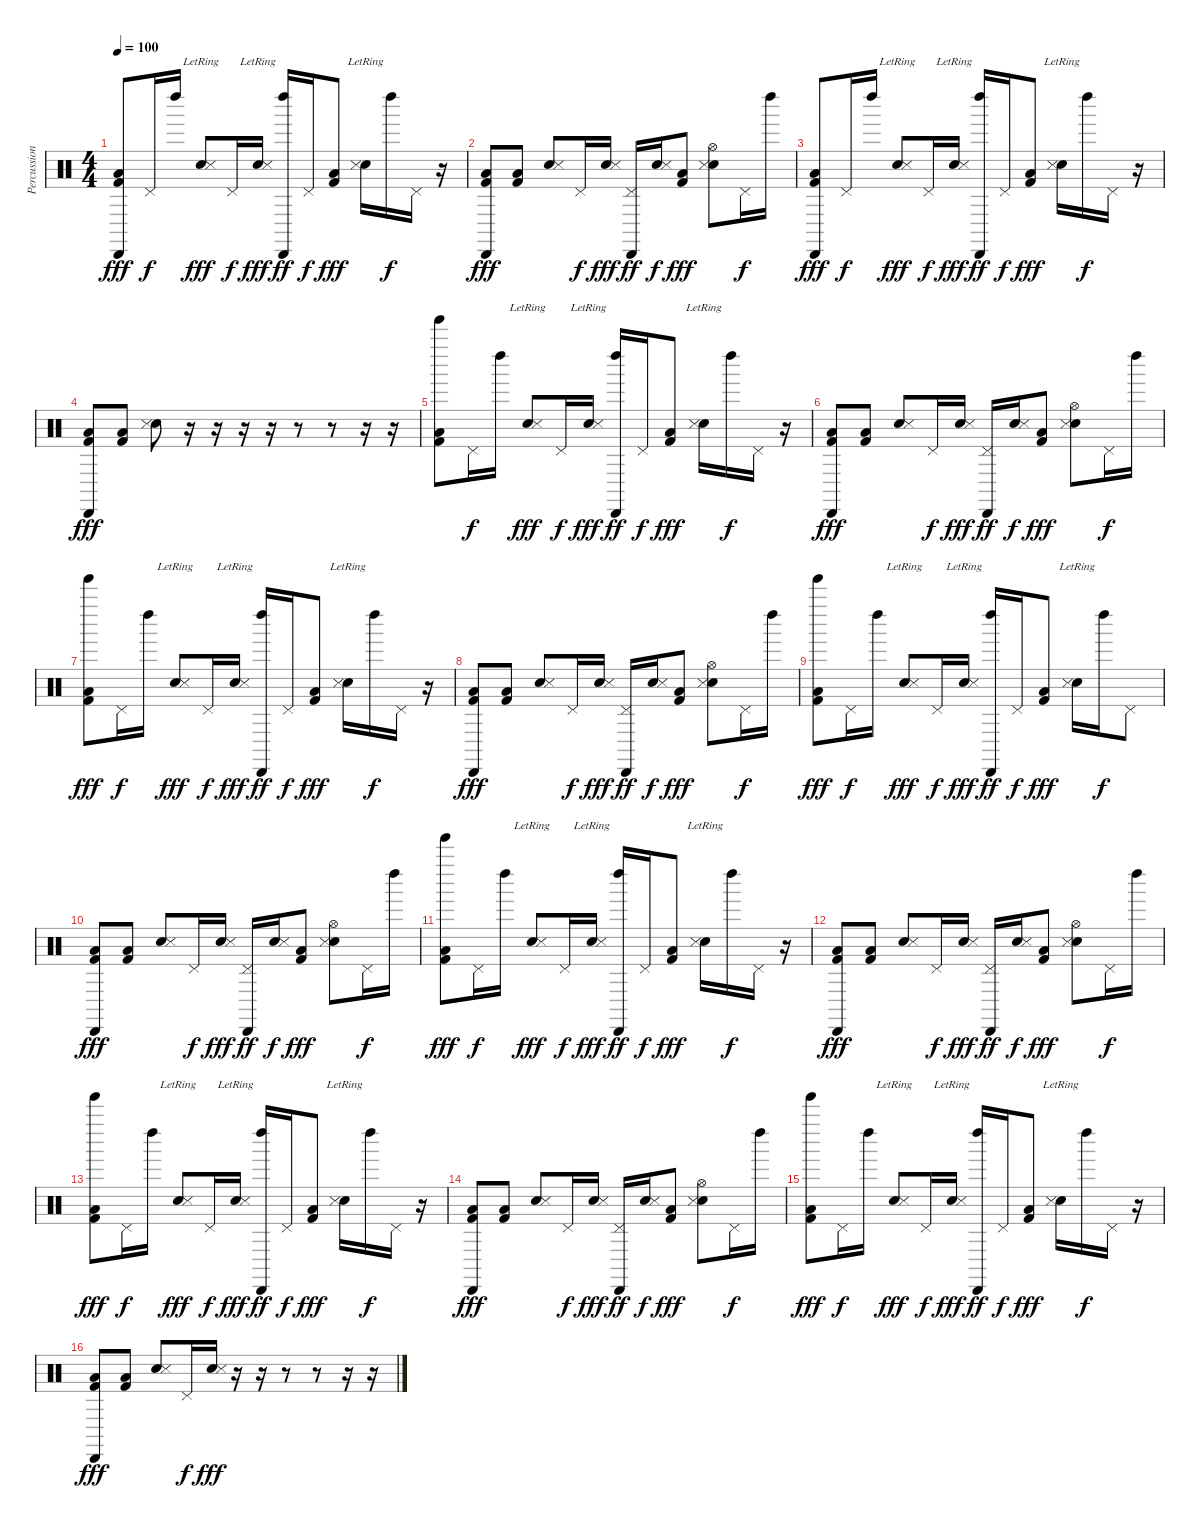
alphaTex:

\track ("Percussion" "Percussion") {instrument percussion}
\staff {score}
\articulation defaults
\ts (4 4)
\tempo 100
\clef neutral
\ks c
("Cabasa (hit)" "Low Floor Tom (hit)" "Kick (hit) 2").8{dy fff} "Pedal Hi-Hat (hit)".16{dy f} "Left Maraca (hit)".16 ("Electric Snare (hit)" "Snare (side stick) 3"{lr}).8{dy fff} "Pedal Hi-Hat (hit)".16{dy f} ("Electric Snare (hit)" "Snare (side stick) 3"{lr}).16{dy fff} ("Cabasa (hit)" "Left Maraca (hit)").16{dy ff} "Pedal Hi-Hat (hit)".16{dy f} ("Low Floor Tom (hit)" "Kick (hit) 2").8{dy fff} ("Electric Snare (hit)"{lr} "Snare (side stick) 3"{lr}).16 "Left Maraca (hit)".16{dy f} "Pedal Hi-Hat (hit)".16 r.16 |
("Cabasa (hit)" "Low Floor Tom (hit)" "Kick (hit) 2").8{dy fff} ("Low Floor Tom (hit)" "Kick (hit) 2").8 ("Electric Snare (hit)" "Snare (side stick) 3").8 "Pedal Hi-Hat (hit)".16{dy f} ("Electric Snare (hit)" "Snare (side stick) 3").16{dy fff} ("Cabasa (hit)" "Pedal Hi-Hat (hit)").16{dy ff} ("Electric Snare (hit)" "Snare (side stick) 3").16{dy f} ("Low Floor Tom (hit)" "Kick (hit) 2").8{dy fff} ("Hi-Hat (open)" "Electric Snare (hit)" "Snare (side stick) 3").8 "Pedal Hi-Hat (hit)".16{dy f} "Left Maraca (hit)".16 |
("Cabasa (hit)" "Low Floor Tom (hit)" "Kick (hit) 2").8{dy fff} "Pedal Hi-Hat (hit)".16{dy f} "Left Maraca (hit)".16 ("Electric Snare (hit)" "Snare (side stick) 3"{lr}).8{dy fff} "Pedal Hi-Hat (hit)".16{dy f} ("Electric Snare (hit)" "Snare (side stick) 3"{lr}).16{dy fff} ("Cabasa (hit)" "Left Maraca (hit)").16{dy ff} "Pedal Hi-Hat (hit)".16{dy f} ("Low Floor Tom (hit)" "Kick (hit) 2").8{dy fff} ("Electric Snare (hit)"{lr} "Snare (side stick) 3"{lr}).16 "Left Maraca (hit)".16{dy f} "Pedal Hi-Hat (hit)".16 r.16 |
("Cabasa (hit)" "Low Floor Tom (hit)" "Kick (hit) 2").8{dy fff} ("Low Floor Tom (hit)" "Kick (hit) 2").8 ("Electric Snare (hit)" "Snare (side stick) 3").8 r.16 r.16 r.16 r.16 r.8 r.8 r.16 r.16 |
("Tinkle Bell (hit)" "Low Floor Tom (hit)" "Kick (hit) 2").8 "Pedal Hi-Hat (hit)".16{dy f} "Left Maraca (hit)".16 ("Electric Snare (hit)" "Snare (side stick) 3"{lr}).8{dy fff} "Pedal Hi-Hat (hit)".16{dy f} ("Electric Snare (hit)" "Snare (side stick) 3"{lr}).16{dy fff} ("Cabasa (hit)" "Left Maraca (hit)").16{dy ff} "Pedal Hi-Hat (hit)".16{dy f} ("Low Floor Tom (hit)" "Kick (hit) 2").8{dy fff} ("Electric Snare (hit)"{lr} "Snare (side stick) 3"{lr}).16 "Left Maraca (hit)".16{dy f} "Pedal Hi-Hat (hit)".16 r.16 |
("Cabasa (hit)" "Low Floor Tom (hit)" "Kick (hit) 2").8{dy fff} ("Low Floor Tom (hit)" "Kick (hit) 2").8 ("Electric Snare (hit)" "Snare (side stick) 3").8 "Pedal Hi-Hat (hit)".16{dy f} ("Electric Snare (hit)" "Snare (side stick) 3").16{dy fff} ("Cabasa (hit)" "Pedal Hi-Hat (hit)").16{dy ff} ("Electric Snare (hit)" "Snare (side stick) 3").16{dy f} ("Low Floor Tom (hit)" "Kick (hit) 2").8{dy fff} ("Hi-Hat (open)" "Electric Snare (hit)" "Snare (side stick) 3").8 "Pedal Hi-Hat (hit)".16{dy f} "Left Maraca (hit)".16 |
("Tinkle Bell (hit)" "Low Floor Tom (hit)" "Kick (hit) 2").8{dy fff} "Pedal Hi-Hat (hit)".16{dy f} "Left Maraca (hit)".16 ("Electric Snare (hit)" "Snare (side stick) 3"{lr}).8{dy fff} "Pedal Hi-Hat (hit)".16{dy f} ("Electric Snare (hit)" "Snare (side stick) 3"{lr}).16{dy fff} ("Cabasa (hit)" "Left Maraca (hit)").16{dy ff} "Pedal Hi-Hat (hit)".16{dy f} ("Low Floor Tom (hit)" "Kick (hit) 2").8{dy fff} ("Electric Snare (hit)"{lr} "Snare (side stick) 3"{lr}).16 "Left Maraca (hit)".16{dy f} "Pedal Hi-Hat (hit)".16 r.16 |
("Cabasa (hit)" "Low Floor Tom (hit)" "Kick (hit) 2").8{dy fff} ("Low Floor Tom (hit)" "Kick (hit) 2").8 ("Electric Snare (hit)" "Snare (side stick) 3").8 "Pedal Hi-Hat (hit)".16{dy f} ("Electric Snare (hit)" "Snare (side stick) 3").16{dy fff} ("Cabasa (hit)" "Pedal Hi-Hat (hit)").16{dy ff} ("Electric Snare (hit)" "Snare (side stick) 3").16{dy f} ("Low Floor Tom (hit)" "Kick (hit) 2").8{dy fff} ("Hi-Hat (open)" "Electric Snare (hit)" "Snare (side stick) 3").8 "Pedal Hi-Hat (hit)".16{dy f} "Left Maraca (hit)".16 |
("Tinkle Bell (hit)" "Low Floor Tom (hit)" "Kick (hit) 2").8{dy fff} "Pedal Hi-Hat (hit)".16{dy f} "Left Maraca (hit)".16 ("Electric Snare (hit)" "Snare (side stick) 3"{lr}).8{dy fff} "Pedal Hi-Hat (hit)".16{dy f} ("Electric Snare (hit)" "Snare (side stick) 3"{lr}).16{dy fff} ("Cabasa (hit)" "Left Maraca (hit)").16{dy ff} "Pedal Hi-Hat (hit)".16{dy f} ("Low Floor Tom (hit)" "Kick (hit) 2").8{dy fff} ("Electric Snare (hit)"{lr} "Snare (side stick) 3"{lr}).16 "Left Maraca (hit)".16{dy f} "Pedal Hi-Hat (hit)".8 |
("Cabasa (hit)" "Low Floor Tom (hit)" "Kick (hit) 2").8{dy fff} ("Low Floor Tom (hit)" "Kick (hit) 2").8 ("Electric Snare (hit)" "Snare (side stick) 3").8 "Pedal Hi-Hat (hit)".16{dy f} ("Electric Snare (hit)" "Snare (side stick) 3").16{dy fff} ("Cabasa (hit)" "Pedal Hi-Hat (hit)").16{dy ff} ("Electric Snare (hit)" "Snare (side stick) 3").16{dy f} ("Low Floor Tom (hit)" "Kick (hit) 2").8{dy fff} ("Hi-Hat (open)" "Electric Snare (hit)" "Snare (side stick) 3").8 "Pedal Hi-Hat (hit)".16{dy f} "Left Maraca (hit)".16 |
("Tinkle Bell (hit)" "Low Floor Tom (hit)" "Kick (hit) 2").8{dy fff} "Pedal Hi-Hat (hit)".16{dy f} "Left Maraca (hit)".16 ("Electric Snare (hit)" "Snare (side stick) 3"{lr}).8{dy fff} "Pedal Hi-Hat (hit)".16{dy f} ("Electric Snare (hit)" "Snare (side stick) 3"{lr}).16{dy fff} ("Cabasa (hit)" "Left Maraca (hit)").16{dy ff} "Pedal Hi-Hat (hit)".16{dy f} ("Low Floor Tom (hit)" "Kick (hit) 2").8{dy fff} ("Electric Snare (hit)"{lr} "Snare (side stick) 3"{lr}).16 "Left Maraca (hit)".16{dy f} "Pedal Hi-Hat (hit)".16 r.16 |
("Cabasa (hit)" "Low Floor Tom (hit)" "Kick (hit) 2").8{dy fff} ("Low Floor Tom (hit)" "Kick (hit) 2").8 ("Electric Snare (hit)" "Snare (side stick) 3").8 "Pedal Hi-Hat (hit)".16{dy f} ("Electric Snare (hit)" "Snare (side stick) 3").16{dy fff} ("Cabasa (hit)" "Pedal Hi-Hat (hit)").16{dy ff} ("Electric Snare (hit)" "Snare (side stick) 3").16{dy f} ("Low Floor Tom (hit)" "Kick (hit) 2").8{dy fff} ("Hi-Hat (open)" "Electric Snare (hit)" "Snare (side stick) 3").8 "Pedal Hi-Hat (hit)".16{dy f} "Left Maraca (hit)".16 |
("Tinkle Bell (hit)" "Low Floor Tom (hit)" "Kick (hit) 2").8{dy fff} "Pedal Hi-Hat (hit)".16{dy f} "Left Maraca (hit)".16 ("Electric Snare (hit)" "Snare (side stick) 3"{lr}).8{dy fff} "Pedal Hi-Hat (hit)".16{dy f} ("Electric Snare (hit)" "Snare (side stick) 3"{lr}).16{dy fff} ("Cabasa (hit)" "Left Maraca (hit)").16{dy ff} "Pedal Hi-Hat (hit)".16{dy f} ("Low Floor Tom (hit)" "Kick (hit) 2").8{dy fff} ("Electric Snare (hit)"{lr} "Snare (side stick) 3"{lr}).16 "Left Maraca (hit)".16{dy f} "Pedal Hi-Hat (hit)".16 r.16 |
("Cabasa (hit)" "Low Floor Tom (hit)" "Kick (hit) 2").8{dy fff} ("Low Floor Tom (hit)" "Kick (hit) 2").8 ("Electric Snare (hit)" "Snare (side stick) 3").8 "Pedal Hi-Hat (hit)".16{dy f} ("Electric Snare (hit)" "Snare (side stick) 3").16{dy fff} ("Cabasa (hit)" "Pedal Hi-Hat (hit)").16{dy ff} ("Electric Snare (hit)" "Snare (side stick) 3").16{dy f} ("Low Floor Tom (hit)" "Kick (hit) 2").8{dy fff} ("Hi-Hat (open)" "Electric Snare (hit)" "Snare (side stick) 3").8 "Pedal Hi-Hat (hit)".16{dy f} "Left Maraca (hit)".16 |
("Tinkle Bell (hit)" "Low Floor Tom (hit)" "Kick (hit) 2").8{dy fff} "Pedal Hi-Hat (hit)".16{dy f} "Left Maraca (hit)".16 ("Electric Snare (hit)" "Snare (side stick) 3"{lr}).8{dy fff} "Pedal Hi-Hat (hit)".16{dy f} ("Electric Snare (hit)" "Snare (side stick) 3"{lr}).16{dy fff} ("Cabasa (hit)" "Left Maraca (hit)").16{dy ff} "Pedal Hi-Hat (hit)".16{dy f} ("Low Floor Tom (hit)" "Kick (hit) 2").8{dy fff} ("Electric Snare (hit)"{lr} "Snare (side stick) 3"{lr}).16 "Left Maraca (hit)".16{dy f} "Pedal Hi-Hat (hit)".16 r.16 |
("Cabasa (hit)" "Low Floor Tom (hit)" "Kick (hit) 2").8{dy fff} ("Low Floor Tom (hit)" "Kick (hit) 2").8 ("Electric Snare (hit)" "Snare (side stick) 3").8 "Pedal Hi-Hat (hit)".16{dy f} ("Electric Snare (hit)" "Snare (side stick) 3").16{dy fff} r.16 r.16 r.8 r.8 r.16 r.16
